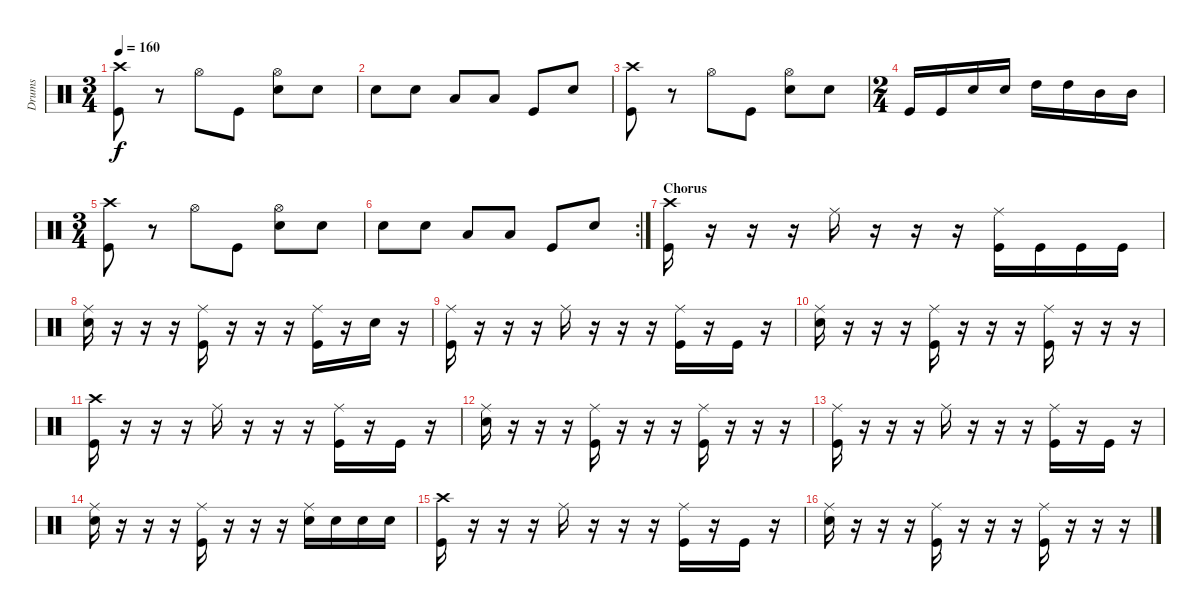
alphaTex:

\track ("Drums" "Drums") {instrument percussion}
\staff {score}
\articulation defaults
\ts (3 4)
\tempo 160
\clef neutral
\ks c
("Crash high (hit)" "Kick (hit)").8{dy f} r.8 "Hi-Hat (open)".8 "Kick (hit)".8 ("Hi-Hat (open)" "Snare (hit) 2").8 "Snare (hit) 2".8 |
"Snare (hit) 2".8 "Snare (hit) 2".8 "Low Tom (hit)".8 "Low Tom (hit)".8 "Kick (hit)".8 "Snare (hit) 2".8 |
("Crash high (hit)" "Kick (hit)").8 r.8 "Hi-Hat (open)".8 "Kick (hit)".8 ("Hi-Hat (open)" "Snare (hit) 2").8 "Snare (hit) 2".8 |
\ts (2 4)
"Kick (hit)".16 "Kick (hit)".16 "Snare (hit) 2".16 "Snare (hit) 2".16 "High Tom (hit)".16 "High Tom (hit)".16 "Mid Tom (hit)".16 "Mid Tom (hit)".16 |
\ts (3 4)
("Crash high (hit)" "Kick (hit)").8 r.8 "Hi-Hat (open)".8 "Kick (hit)".8 ("Hi-Hat (open)" "Snare (hit) 2").8 "Snare (hit) 2".8 |
\rc 2 "Snare (hit) 2".8 "Snare (hit) 2".8 "Low Tom (hit)".8 "Low Tom (hit)".8 "Kick (hit)".8 "Snare (hit) 2".8
|
\section ("" "Chorus")
("Crash high (hit)" "Kick (hit)").16 r.16 r.16 r.16 "Ride (middle)".16 r.16 r.16 r.16 ("Ride (middle)" "Kick (hit)").16 "Kick (hit)".16 "Kick (hit)".16 "Kick (hit)".16 |
("Ride (middle)" "Snare (hit) 2").16 r.16 r.16 r.16 ("Ride (middle)" "Kick (hit)").16 r.16 r.16 r.16 ("Ride (middle)" "Kick (hit)").16 r.16 "Snare (hit) 2".16 r.16 |
("Ride (middle)" "Kick (hit)").16 r.16 r.16 r.16 "Ride (middle)".16 r.16 r.16 r.16 ("Ride (middle)" "Kick (hit)").16 r.16 "Kick (hit)".16 r.16 |
("Ride (middle)" "Snare (hit) 2").16 r.16 r.16 r.16 ("Ride (middle)" "Kick (hit)").16 r.16 r.16 r.16 ("Ride (middle)" "Kick (hit)").16 r.16 r.16 r.16 |
("Crash high (hit)" "Kick (hit)").16 r.16 r.16 r.16 "Ride (middle)".16 r.16 r.16 r.16 ("Ride (middle)" "Kick (hit)").16 r.16 "Kick (hit)".16 r.16 |
("Ride (middle)" "Snare (hit) 2").16 r.16 r.16 r.16 ("Ride (middle)" "Kick (hit)").16 r.16 r.16 r.16 ("Ride (middle)" "Kick (hit)").16 r.16 r.16 r.16 |
("Ride (middle)" "Kick (hit)").16 r.16 r.16 r.16 "Ride (middle)".16 r.16 r.16 r.16 ("Ride (middle)" "Kick (hit)").16 r.16 "Kick (hit)".16 r.16 |
("Ride (middle)" "Snare (hit) 2").16 r.16 r.16 r.16 ("Ride (middle)" "Kick (hit)").16 r.16 r.16 r.16 ("Ride (middle)" "Snare (hit) 2").16 "Snare (hit) 2".16 "Snare (hit) 2".16 "Snare (hit) 2".16 |
("Crash high (hit)" "Kick (hit)").16 r.16 r.16 r.16 "Ride (middle)".16 r.16 r.16 r.16 ("Ride (middle)" "Kick (hit)").16 r.16 "Kick (hit)".16 r.16 |
("Ride (middle)" "Snare (hit) 2").16 r.16 r.16 r.16 ("Ride (middle)" "Kick (hit)").16 r.16 r.16 r.16 ("Ride (middle)" "Kick (hit)").16 r.16 r.16 r.16
